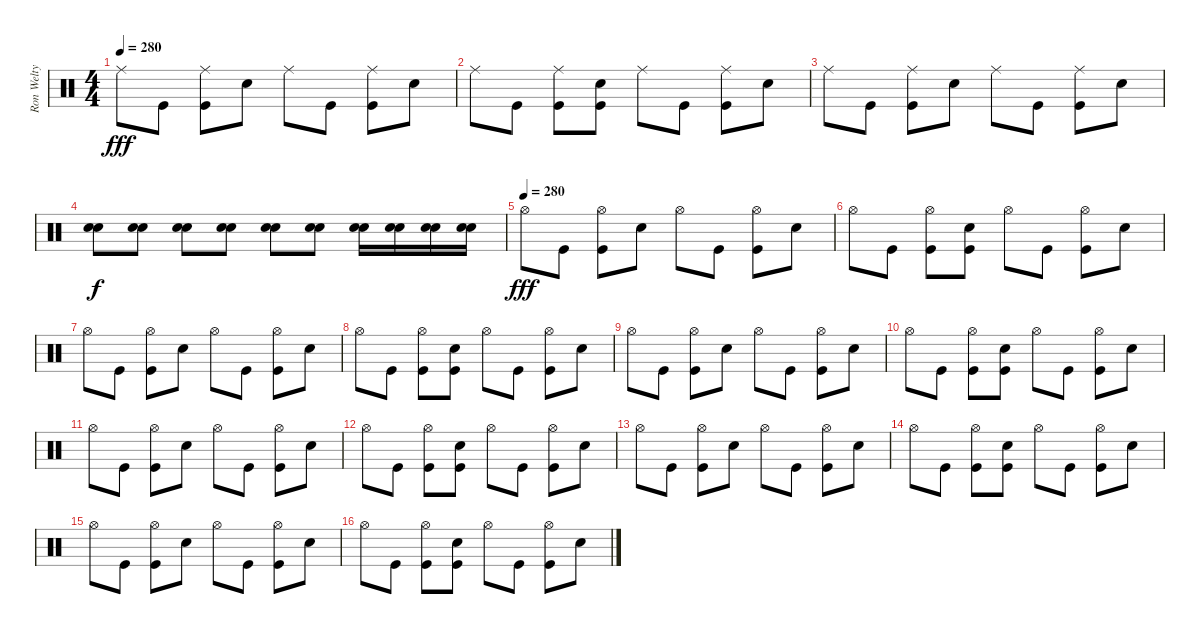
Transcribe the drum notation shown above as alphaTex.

\track ("Ron Welty" "Ron Welty") {instrument percussion}
\staff {score}
\articulation defaults
\ts (4 4)
\tempo 280
\clef neutral
\ks c "Ride (middle)".8{dy fff} "Kick (hit)".8
("Ride (middle)" "Kick (hit)").8 "Snare (hit) 2".8 "Ride (middle)".8 "Kick (hit)".8 ("Ride (middle)" "Kick (hit)").8 "Snare (hit) 2".8 |
"Ride (middle)".8 "Kick (hit)".8 ("Ride (middle)" "Kick (hit)").8 ("Snare (hit) 2" "Kick (hit)").8 "Ride (middle)".8 "Kick (hit)".8 ("Ride (middle)" "Kick (hit)").8 "Snare (hit) 2".8 |
"Ride (middle)".8 "Kick (hit)".8 ("Ride (middle)" "Kick (hit)").8 "Snare (hit) 2".8 "Ride (middle)".8 "Kick (hit)".8 ("Ride (middle)" "Kick (hit)").8 "Snare (hit) 2".8 |
("Snare (hit) 2" "Electric Snare (hit)").8{dy f} ("Snare (hit) 2" "Electric Snare (hit)").8 ("Snare (hit) 2" "Electric Snare (hit)").8 ("Snare (hit) 2" "Electric Snare (hit)").8 ("Snare (hit) 2" "Electric Snare (hit)").8 ("Snare (hit) 2" "Electric Snare (hit)").8 ("Snare (hit) 2" "Electric Snare (hit)").16 ("Snare (hit) 2" "Electric Snare (hit)").16 ("Snare (hit) 2" "Electric Snare (hit)").16 ("Snare (hit) 2" "Electric Snare (hit)").16 |
\tempo (280)
"Hi-Hat (open)".8{dy fff} "Kick (hit)".8 ("Hi-Hat (open)" "Kick (hit)").8 "Snare (hit) 2".8 "Hi-Hat (open)".8 "Kick (hit)".8 ("Hi-Hat (open)" "Kick (hit)").8 "Snare (hit) 2".8 |
"Hi-Hat (open)".8 "Kick (hit)".8 ("Hi-Hat (open)" "Kick (hit)").8 ("Snare (hit) 2" "Kick (hit)").8 "Hi-Hat (open)".8 "Kick (hit)".8 ("Hi-Hat (open)" "Kick (hit)").8 "Snare (hit) 2".8 |
"Hi-Hat (open)".8 "Kick (hit)".8 ("Hi-Hat (open)" "Kick (hit)").8 "Snare (hit) 2".8 "Hi-Hat (open)".8 "Kick (hit)".8 ("Hi-Hat (open)" "Kick (hit)").8 "Snare (hit) 2".8 |
"Hi-Hat (open)".8 "Kick (hit)".8 ("Hi-Hat (open)" "Kick (hit)").8 ("Snare (hit) 2" "Kick (hit)").8 "Hi-Hat (open)".8 "Kick (hit)".8 ("Hi-Hat (open)" "Kick (hit)").8 "Snare (hit) 2".8 |
"Hi-Hat (open)".8 "Kick (hit)".8 ("Hi-Hat (open)" "Kick (hit)").8 "Snare (hit) 2".8 "Hi-Hat (open)".8 "Kick (hit)".8 ("Hi-Hat (open)" "Kick (hit)").8 "Snare (hit) 2".8 |
"Hi-Hat (open)".8 "Kick (hit)".8 ("Hi-Hat (open)" "Kick (hit)").8 ("Snare (hit) 2" "Kick (hit)").8 "Hi-Hat (open)".8 "Kick (hit)".8 ("Hi-Hat (open)" "Kick (hit)").8 "Snare (hit) 2".8 |
"Hi-Hat (open)".8 "Kick (hit)".8 ("Hi-Hat (open)" "Kick (hit)").8 "Snare (hit) 2".8 "Hi-Hat (open)".8 "Kick (hit)".8 ("Hi-Hat (open)" "Kick (hit)").8 "Snare (hit) 2".8 |
"Hi-Hat (open)".8 "Kick (hit)".8 ("Hi-Hat (open)" "Kick (hit)").8 ("Snare (hit) 2" "Kick (hit)").8 "Hi-Hat (open)".8 "Kick (hit)".8 ("Hi-Hat (open)" "Kick (hit)").8 "Snare (hit) 2".8 |
"Hi-Hat (open)".8 "Kick (hit)".8 ("Hi-Hat (open)" "Kick (hit)").8 "Snare (hit) 2".8 "Hi-Hat (open)".8 "Kick (hit)".8 ("Hi-Hat (open)" "Kick (hit)").8 "Snare (hit) 2".8 |
"Hi-Hat (open)".8 "Kick (hit)".8 ("Hi-Hat (open)" "Kick (hit)").8 ("Snare (hit) 2" "Kick (hit)").8 "Hi-Hat (open)".8 "Kick (hit)".8 ("Hi-Hat (open)" "Kick (hit)").8 "Snare (hit) 2".8 |
"Hi-Hat (open)".8 "Kick (hit)".8 ("Hi-Hat (open)" "Kick (hit)").8 "Snare (hit) 2".8 "Hi-Hat (open)".8 "Kick (hit)".8 ("Hi-Hat (open)" "Kick (hit)").8 "Snare (hit) 2".8 |
"Hi-Hat (open)".8 "Kick (hit)".8 ("Hi-Hat (open)" "Kick (hit)").8 ("Snare (hit) 2" "Kick (hit)").8 "Hi-Hat (open)".8 "Kick (hit)".8 ("Hi-Hat (open)" "Kick (hit)").8 "Snare (hit) 2".8
